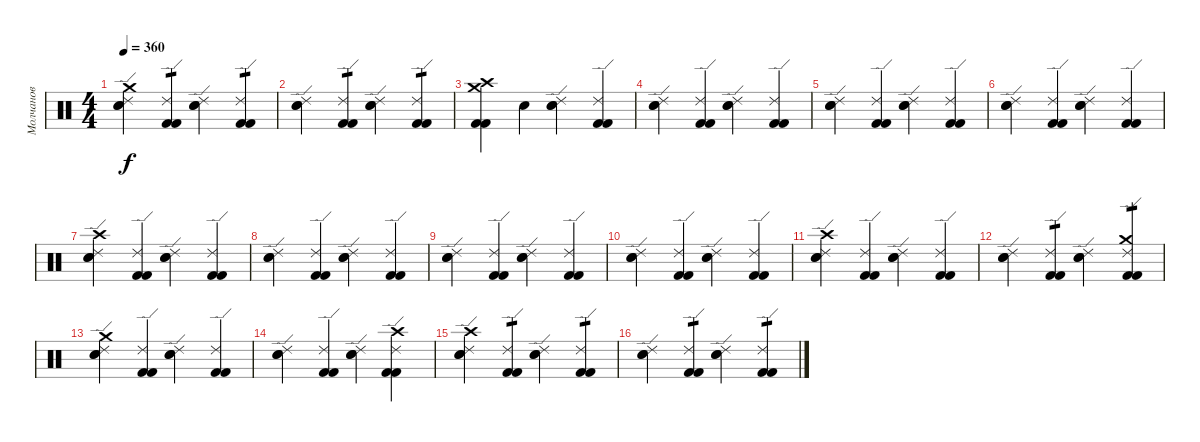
\track ("Молчанов" "Молчанов") {instrument percussion}
\staff {score}
\articulation defaults
\ts (4 4)
\tempo 360
\clef neutral
\ks c
("Ride (edge) 2" "Electric Snare (hit)" "Electric Snare (hit)" "Crash medium (hit)").4{dy f} ("Ride (edge) 2" "Kick (hit) 2" "Kick (hit) 2").4{tp 1} ("Ride (edge) 2" "Electric Snare (hit)" "Electric Snare (hit)").4 ("Ride (edge) 2" "Kick (hit) 2" "Kick (hit) 2").4{tp 1} |
("Ride (edge) 2" "Electric Snare (hit)" "Electric Snare (hit)").4 ("Ride (edge) 2" "Kick (hit) 2" "Kick (hit) 2").4{tp 1} ("Ride (edge) 2" "Electric Snare (hit)" "Electric Snare (hit)").4 ("Ride (edge) 2" "Kick (hit) 2" "Kick (hit) 2").4{tp 1} |
("Kick (hit) 2" "Kick (hit) 2" "Crash high (hit)" "Crash medium (hit)").4 "Snare (hit)"{x}.4 ("Ride (edge) 2" "Electric Snare (hit)" "Electric Snare (hit)").4 ("Ride (edge) 2" "Kick (hit) 2" "Kick (hit) 2").4 |
("Ride (edge) 2" "Electric Snare (hit)" "Electric Snare (hit)").4 ("Ride (edge) 2" "Kick (hit) 2" "Kick (hit) 2").4 ("Ride (edge) 2" "Electric Snare (hit)" "Electric Snare (hit)").4 ("Ride (edge) 2" "Kick (hit) 2" "Kick (hit) 2").4 |
("Ride (edge) 2" "Electric Snare (hit)" "Electric Snare (hit)").4 ("Ride (edge) 2" "Kick (hit) 2" "Kick (hit) 2").4 ("Ride (edge) 2" "Electric Snare (hit)" "Electric Snare (hit)").4 ("Ride (edge) 2" "Kick (hit) 2" "Kick (hit) 2").4 |
("Ride (edge) 2" "Electric Snare (hit)" "Electric Snare (hit)").4 ("Ride (edge) 2" "Kick (hit) 2" "Kick (hit) 2").4 ("Ride (edge) 2" "Electric Snare (hit)" "Electric Snare (hit)").4 ("Ride (edge) 2" "Kick (hit) 2" "Kick (hit) 2").4 |
("Ride (edge) 2" "Electric Snare (hit)" "Electric Snare (hit)" "Crash high (hit)").4 ("Ride (edge) 2" "Kick (hit) 2" "Kick (hit) 2").4 ("Ride (edge) 2" "Electric Snare (hit)" "Electric Snare (hit)").4 ("Ride (edge) 2" "Kick (hit) 2" "Kick (hit) 2").4 |
("Ride (edge) 2" "Electric Snare (hit)" "Electric Snare (hit)").4 ("Ride (edge) 2" "Kick (hit) 2" "Kick (hit) 2").4 ("Ride (edge) 2" "Electric Snare (hit)" "Electric Snare (hit)").4 ("Ride (edge) 2" "Kick (hit) 2" "Kick (hit) 2").4 |
("Ride (edge) 2" "Electric Snare (hit)" "Electric Snare (hit)").4 ("Ride (edge) 2" "Kick (hit) 2" "Kick (hit) 2").4 ("Ride (edge) 2" "Electric Snare (hit)" "Electric Snare (hit)").4 ("Ride (edge) 2" "Kick (hit) 2" "Kick (hit) 2").4 |
("Ride (edge) 2" "Electric Snare (hit)" "Electric Snare (hit)").4 ("Ride (edge) 2" "Kick (hit) 2" "Kick (hit) 2").4 ("Ride (edge) 2" "Electric Snare (hit)" "Electric Snare (hit)").4 ("Ride (edge) 2" "Kick (hit) 2" "Kick (hit) 2").4 |
("Ride (edge) 2" "Electric Snare (hit)" "Electric Snare (hit)" "Crash high (hit)").4 ("Ride (edge) 2" "Kick (hit) 2" "Kick (hit) 2").4 ("Ride (edge) 2" "Electric Snare (hit)" "Electric Snare (hit)").4 ("Ride (edge) 2" "Kick (hit) 2" "Kick (hit) 2").4 |
("Ride (edge) 2" "Electric Snare (hit)" "Electric Snare (hit)").4 ("Ride (edge) 2" "Kick (hit) 2" "Kick (hit) 2").4{tp 1} ("Ride (edge) 2" "Electric Snare (hit)" "Electric Snare (hit)").4 ("Ride (edge) 2" "Kick (hit) 2" "Kick (hit) 2" "Crash medium (hit)").4{tp 1} |
("Ride (edge) 2" "Electric Snare (hit)" "Electric Snare (hit)" "Crash medium (hit)").4 ("Ride (edge) 2" "Kick (hit) 2" "Kick (hit) 2").4 ("Ride (edge) 2" "Electric Snare (hit)" "Electric Snare (hit)").4 ("Ride (edge) 2" "Kick (hit) 2" "Kick (hit) 2").4 |
("Ride (edge) 2" "Electric Snare (hit)" "Electric Snare (hit)").4 ("Ride (edge) 2" "Kick (hit) 2" "Kick (hit) 2").4 ("Ride (edge) 2" "Electric Snare (hit)" "Electric Snare (hit)").4 ("Ride (edge) 2" "Kick (hit) 2" "Kick (hit) 2" "Crash high (hit)").4 |
("Ride (edge) 2" "Electric Snare (hit)" "Electric Snare (hit)" "Crash high (hit)").4 ("Ride (edge) 2" "Kick (hit) 2" "Kick (hit) 2").4{tp 1} ("Ride (edge) 2" "Electric Snare (hit)" "Electric Snare (hit)").4 ("Ride (edge) 2" "Kick (hit) 2" "Kick (hit) 2").4{tp 1} |
("Ride (edge) 2" "Electric Snare (hit)" "Electric Snare (hit)").4 ("Ride (edge) 2" "Kick (hit) 2" "Kick (hit) 2").4{tp 1} ("Ride (edge) 2" "Electric Snare (hit)" "Electric Snare (hit)").4 ("Ride (edge) 2" "Kick (hit) 2" "Kick (hit) 2").4{tp 1}
